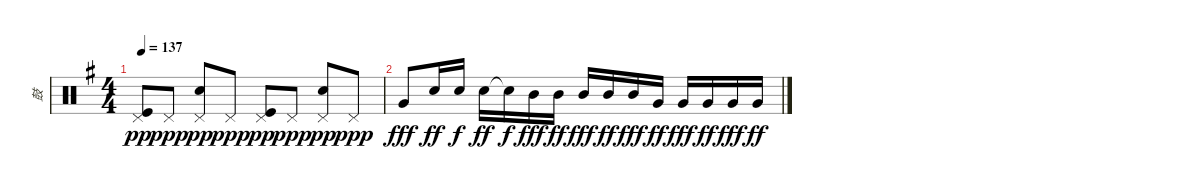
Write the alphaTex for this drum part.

\track ("鼓" "鼓") {instrument percussion}
\staff {score}
\articulation defaults
\ts (4 4)
\tempo 137
\clef neutral
\ks g
("Kick (hit)" "Pedal Hi-Hat (hit)").8{dy pp} "Pedal Hi-Hat (hit)".8{dy ppp} ("Snare (hit) 2" "Pedal Hi-Hat (hit)").8{dy pp} "Pedal Hi-Hat (hit)".8{dy ppp} ("Kick (hit)" "Pedal Hi-Hat (hit)").8{dy pp} "Pedal Hi-Hat (hit)".8{dy ppp} ("Snare (hit) 2" "Pedal Hi-Hat (hit)").8{dy pp} "Pedal Hi-Hat (hit)".8{dy ppp} |
"Very Low Tom (hit)".8{dy fff} "Snare (hit) 2".16{dy ff} "Snare (hit) 2".16{dy f} "Snare (hit) 2".16{dy ff} "Snare (hit)"{t}.16{dy f} "Mid Tom (hit)".16{dy fff} "Mid Tom (hit)".16{dy ff} "Mid Tom (hit)".16{dy fff} "Mid Tom (hit)".16{dy ff} "Mid Tom (hit)".16{dy fff} "Very Low Tom (hit)".16{dy ff} "Very Low Tom (hit)".16{dy fff} "Very Low Tom (hit)".16{dy ff} "Very Low Tom (hit)".16{dy fff} "Very Low Tom (hit)".16{dy ff}
